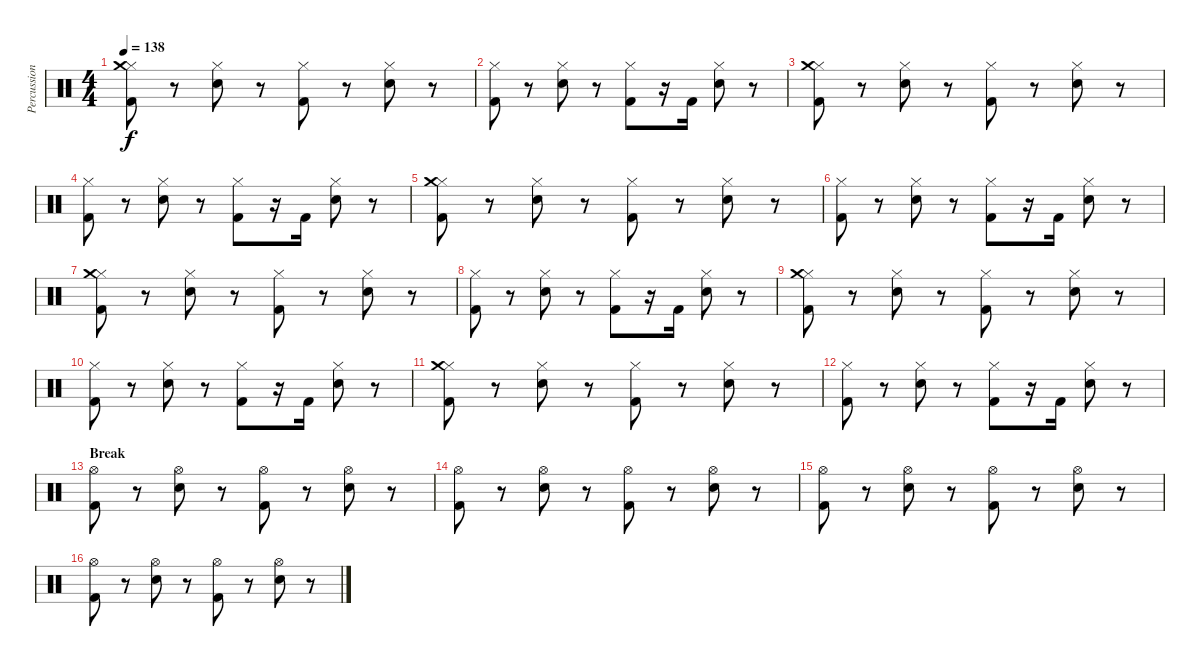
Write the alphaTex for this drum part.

\track ("Percussions" "Percussion") {instrument percussion}
\staff {score}
\articulation defaults
\ts (4 4)
\tempo 138
\clef neutral
\ks c
("Hi-Hat (closed)" "Crash medium (hit)" "Kick (hit) 2").8{dy f} r.8 ("Hi-Hat (closed)" "Electric Snare (hit)").8 r.8 ("Hi-Hat (closed)" "Kick (hit) 2").8 r.8 ("Hi-Hat (closed)" "Electric Snare (hit)").8 r.8 |
("Hi-Hat (closed)" "Kick (hit) 2").8 r.8 ("Hi-Hat (closed)" "Electric Snare (hit)").8 r.8 ("Hi-Hat (closed)" "Kick (hit) 2").8 r.16 "Kick (hit) 2".16 ("Hi-Hat (closed)" "Electric Snare (hit)").8 r.8 |
("Hi-Hat (closed)" "Crash medium (hit)" "Kick (hit) 2").8 r.8 ("Hi-Hat (closed)" "Electric Snare (hit)").8 r.8 ("Hi-Hat (closed)" "Kick (hit) 2").8 r.8 ("Hi-Hat (closed)" "Electric Snare (hit)").8 r.8 |
("Hi-Hat (closed)" "Kick (hit) 2").8 r.8 ("Hi-Hat (closed)" "Electric Snare (hit)").8 r.8 ("Hi-Hat (closed)" "Kick (hit) 2").8 r.16 "Kick (hit) 2".16 ("Hi-Hat (closed)" "Electric Snare (hit)").8 r.8 |
("Hi-Hat (closed)" "Crash medium (hit)" "Kick (hit) 2").8 r.8 ("Hi-Hat (closed)" "Electric Snare (hit)").8 r.8 ("Hi-Hat (closed)" "Kick (hit) 2").8 r.8 ("Hi-Hat (closed)" "Electric Snare (hit)").8 r.8 |
("Hi-Hat (closed)" "Kick (hit) 2").8 r.8 ("Hi-Hat (closed)" "Electric Snare (hit)").8 r.8 ("Hi-Hat (closed)" "Kick (hit) 2").8 r.16 "Kick (hit) 2".16 ("Hi-Hat (closed)" "Electric Snare (hit)").8 r.8 |
("Hi-Hat (closed)" "Crash medium (hit)" "Kick (hit) 2").8 r.8 ("Hi-Hat (closed)" "Electric Snare (hit)").8 r.8 ("Hi-Hat (closed)" "Kick (hit) 2").8 r.8 ("Hi-Hat (closed)" "Electric Snare (hit)").8 r.8 |
("Hi-Hat (closed)" "Kick (hit) 2").8 r.8 ("Hi-Hat (closed)" "Electric Snare (hit)").8 r.8 ("Hi-Hat (closed)" "Kick (hit) 2").8 r.16 "Kick (hit) 2".16 ("Hi-Hat (closed)" "Electric Snare (hit)").8 r.8 |
("Hi-Hat (closed)" "Crash medium (hit)" "Kick (hit) 2").8 r.8 ("Hi-Hat (closed)" "Electric Snare (hit)").8 r.8 ("Hi-Hat (closed)" "Kick (hit) 2").8 r.8 ("Hi-Hat (closed)" "Electric Snare (hit)").8 r.8 |
("Hi-Hat (closed)" "Kick (hit) 2").8 r.8 ("Hi-Hat (closed)" "Electric Snare (hit)").8 r.8 ("Hi-Hat (closed)" "Kick (hit) 2").8 r.16 "Kick (hit) 2".16 ("Hi-Hat (closed)" "Electric Snare (hit)").8 r.8 |
("Hi-Hat (closed)" "Crash medium (hit)" "Kick (hit) 2").8 r.8 ("Hi-Hat (closed)" "Electric Snare (hit)").8 r.8 ("Hi-Hat (closed)" "Kick (hit) 2").8 r.8 ("Hi-Hat (closed)" "Electric Snare (hit)").8 r.8 |
("Hi-Hat (closed)" "Kick (hit) 2").8 r.8 ("Hi-Hat (closed)" "Electric Snare (hit)").8 r.8 ("Hi-Hat (closed)" "Kick (hit) 2").8 r.16 "Kick (hit) 2".16 ("Hi-Hat (closed)" "Electric Snare (hit)").8 r.8 |
\section ("" "Break")
("Hi-Hat (open)" "Kick (hit) 2").8 r.8 ("Hi-Hat (open)" "Electric Snare (hit)").8 r.8 ("Hi-Hat (open)" "Kick (hit) 2").8 r.8 ("Hi-Hat (open)" "Electric Snare (hit)").8 r.8 |
("Hi-Hat (open)" "Kick (hit) 2").8 r.8 ("Hi-Hat (open)" "Electric Snare (hit)").8 r.8 ("Hi-Hat (open)" "Kick (hit) 2").8 r.8 ("Hi-Hat (open)" "Electric Snare (hit)").8 r.8 |
("Hi-Hat (open)" "Kick (hit) 2").8 r.8 ("Hi-Hat (open)" "Electric Snare (hit)").8 r.8 ("Hi-Hat (open)" "Kick (hit) 2").8 r.8 ("Hi-Hat (open)" "Electric Snare (hit)").8 r.8 |
("Hi-Hat (open)" "Kick (hit) 2").8 r.8 ("Hi-Hat (open)" "Electric Snare (hit)").8 r.8 ("Hi-Hat (open)" "Kick (hit) 2").8 r.8 ("Hi-Hat (open)" "Electric Snare (hit)").8 r.8
